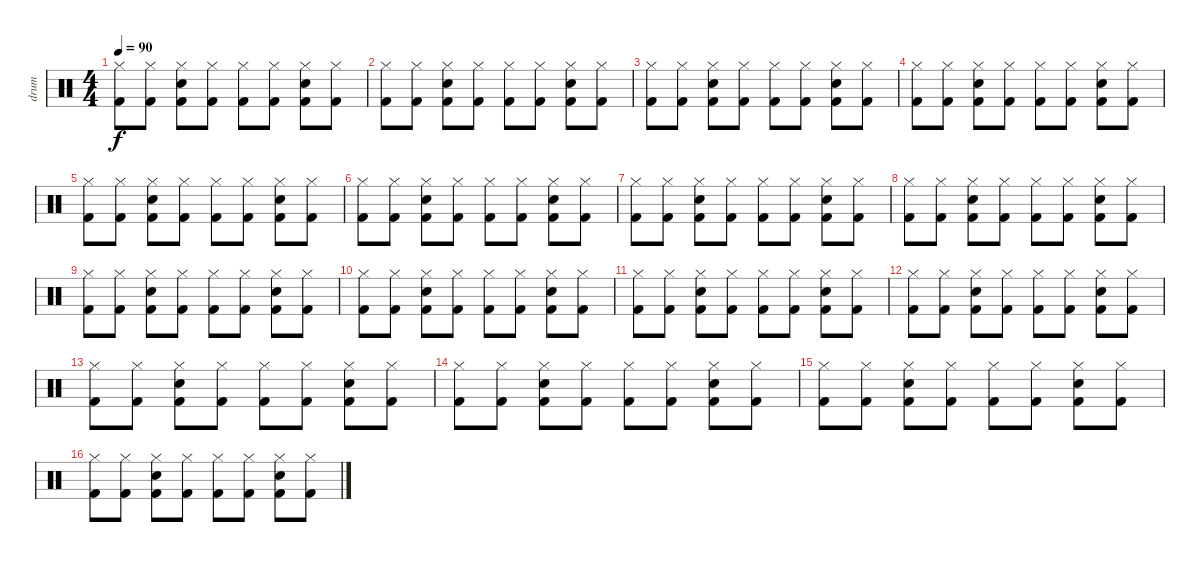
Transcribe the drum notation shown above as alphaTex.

\track ("drum" "drum") {instrument percussion}
\staff {score}
\articulation defaults
\ts (4 4)
\tempo 90
\clef neutral
\ks c
("Kick (hit) 2" "Hi-Hat (closed)").8{dy f} ("Kick (hit) 2" "Hi-Hat (closed)").8 ("Kick (hit) 2" "Snare (hit) 2" "Hi-Hat (closed)").8 ("Kick (hit) 2" "Hi-Hat (closed)").8 ("Kick (hit) 2" "Hi-Hat (closed)").8 ("Kick (hit) 2" "Hi-Hat (closed)").8 ("Kick (hit) 2" "Snare (hit) 2" "Hi-Hat (closed)").8 ("Kick (hit) 2" "Hi-Hat (closed)").8 |
("Kick (hit) 2" "Hi-Hat (closed)").8 ("Kick (hit) 2" "Hi-Hat (closed)").8 ("Kick (hit) 2" "Snare (hit) 2" "Hi-Hat (closed)").8 ("Kick (hit) 2" "Hi-Hat (closed)").8 ("Kick (hit) 2" "Hi-Hat (closed)").8 ("Kick (hit) 2" "Hi-Hat (closed)").8 ("Kick (hit) 2" "Snare (hit) 2" "Hi-Hat (closed)").8 ("Kick (hit) 2" "Hi-Hat (closed)").8 |
("Kick (hit) 2" "Hi-Hat (closed)").8 ("Kick (hit) 2" "Hi-Hat (closed)").8 ("Kick (hit) 2" "Snare (hit) 2" "Hi-Hat (closed)").8 ("Kick (hit) 2" "Hi-Hat (closed)").8 ("Kick (hit) 2" "Hi-Hat (closed)").8 ("Kick (hit) 2" "Hi-Hat (closed)").8 ("Kick (hit) 2" "Snare (hit) 2" "Hi-Hat (closed)").8 ("Kick (hit) 2" "Hi-Hat (closed)").8 |
("Kick (hit) 2" "Hi-Hat (closed)").8 ("Kick (hit) 2" "Hi-Hat (closed)").8 ("Kick (hit) 2" "Snare (hit) 2" "Hi-Hat (closed)").8 ("Kick (hit) 2" "Hi-Hat (closed)").8 ("Kick (hit) 2" "Hi-Hat (closed)").8 ("Kick (hit) 2" "Hi-Hat (closed)").8 ("Kick (hit) 2" "Snare (hit) 2" "Hi-Hat (closed)").8 ("Kick (hit) 2" "Hi-Hat (closed)").8 |
("Kick (hit) 2" "Hi-Hat (closed)").8 ("Kick (hit) 2" "Hi-Hat (closed)").8 ("Kick (hit) 2" "Snare (hit) 2" "Hi-Hat (closed)").8 ("Kick (hit) 2" "Hi-Hat (closed)").8 ("Kick (hit) 2" "Hi-Hat (closed)").8 ("Kick (hit) 2" "Hi-Hat (closed)").8 ("Kick (hit) 2" "Snare (hit) 2" "Hi-Hat (closed)").8 ("Kick (hit) 2" "Hi-Hat (closed)").8 |
("Kick (hit) 2" "Hi-Hat (closed)").8 ("Kick (hit) 2" "Hi-Hat (closed)").8 ("Kick (hit) 2" "Snare (hit) 2" "Hi-Hat (closed)").8 ("Kick (hit) 2" "Hi-Hat (closed)").8 ("Kick (hit) 2" "Hi-Hat (closed)").8 ("Kick (hit) 2" "Hi-Hat (closed)").8 ("Kick (hit) 2" "Snare (hit) 2" "Hi-Hat (closed)").8 ("Kick (hit) 2" "Hi-Hat (closed)").8 |
("Kick (hit) 2" "Hi-Hat (closed)").8 ("Kick (hit) 2" "Hi-Hat (closed)").8 ("Kick (hit) 2" "Snare (hit) 2" "Hi-Hat (closed)").8 ("Kick (hit) 2" "Hi-Hat (closed)").8 ("Kick (hit) 2" "Hi-Hat (closed)").8 ("Kick (hit) 2" "Hi-Hat (closed)").8 ("Kick (hit) 2" "Snare (hit) 2" "Hi-Hat (closed)").8 ("Kick (hit) 2" "Hi-Hat (closed)").8 |
("Kick (hit) 2" "Hi-Hat (closed)").8 ("Kick (hit) 2" "Hi-Hat (closed)").8 ("Kick (hit) 2" "Snare (hit) 2" "Hi-Hat (closed)").8 ("Kick (hit) 2" "Hi-Hat (closed)").8 ("Kick (hit) 2" "Hi-Hat (closed)").8 ("Kick (hit) 2" "Hi-Hat (closed)").8 ("Kick (hit) 2" "Snare (hit) 2" "Hi-Hat (closed)").8 ("Kick (hit) 2" "Hi-Hat (closed)").8 |
("Kick (hit) 2" "Hi-Hat (closed)").8 ("Kick (hit) 2" "Hi-Hat (closed)").8 ("Kick (hit) 2" "Snare (hit) 2" "Hi-Hat (closed)").8 ("Kick (hit) 2" "Hi-Hat (closed)").8 ("Kick (hit) 2" "Hi-Hat (closed)").8 ("Kick (hit) 2" "Hi-Hat (closed)").8 ("Kick (hit) 2" "Snare (hit) 2" "Hi-Hat (closed)").8 ("Kick (hit) 2" "Hi-Hat (closed)").8 |
("Kick (hit) 2" "Hi-Hat (closed)").8 ("Kick (hit) 2" "Hi-Hat (closed)").8 ("Kick (hit) 2" "Snare (hit) 2" "Hi-Hat (closed)").8 ("Kick (hit) 2" "Hi-Hat (closed)").8 ("Kick (hit) 2" "Hi-Hat (closed)").8 ("Kick (hit) 2" "Hi-Hat (closed)").8 ("Kick (hit) 2" "Snare (hit) 2" "Hi-Hat (closed)").8 ("Kick (hit) 2" "Hi-Hat (closed)").8 |
("Kick (hit) 2" "Hi-Hat (closed)").8 ("Kick (hit) 2" "Hi-Hat (closed)").8 ("Kick (hit) 2" "Snare (hit) 2" "Hi-Hat (closed)").8 ("Kick (hit) 2" "Hi-Hat (closed)").8 ("Kick (hit) 2" "Hi-Hat (closed)").8 ("Kick (hit) 2" "Hi-Hat (closed)").8 ("Kick (hit) 2" "Snare (hit) 2" "Hi-Hat (closed)").8 ("Kick (hit) 2" "Hi-Hat (closed)").8 |
("Kick (hit) 2" "Hi-Hat (closed)").8 ("Kick (hit) 2" "Hi-Hat (closed)").8 ("Kick (hit) 2" "Snare (hit) 2" "Hi-Hat (closed)").8 ("Kick (hit) 2" "Hi-Hat (closed)").8 ("Kick (hit) 2" "Hi-Hat (closed)").8 ("Kick (hit) 2" "Hi-Hat (closed)").8 ("Kick (hit) 2" "Snare (hit) 2" "Hi-Hat (closed)").8 ("Kick (hit) 2" "Hi-Hat (closed)").8 |
("Kick (hit) 2" "Hi-Hat (closed)").8 ("Kick (hit) 2" "Hi-Hat (closed)").8 ("Kick (hit) 2" "Snare (hit) 2" "Hi-Hat (closed)").8 ("Kick (hit) 2" "Hi-Hat (closed)").8 ("Kick (hit) 2" "Hi-Hat (closed)").8 ("Kick (hit) 2" "Hi-Hat (closed)").8 ("Kick (hit) 2" "Snare (hit) 2" "Hi-Hat (closed)").8 ("Kick (hit) 2" "Hi-Hat (closed)").8 |
("Kick (hit) 2" "Hi-Hat (closed)").8 ("Kick (hit) 2" "Hi-Hat (closed)").8 ("Kick (hit) 2" "Snare (hit) 2" "Hi-Hat (closed)").8 ("Kick (hit) 2" "Hi-Hat (closed)").8 ("Kick (hit) 2" "Hi-Hat (closed)").8 ("Kick (hit) 2" "Hi-Hat (closed)").8 ("Kick (hit) 2" "Snare (hit) 2" "Hi-Hat (closed)").8 ("Kick (hit) 2" "Hi-Hat (closed)").8 |
("Kick (hit) 2" "Hi-Hat (closed)").8 ("Kick (hit) 2" "Hi-Hat (closed)").8 ("Kick (hit) 2" "Snare (hit) 2" "Hi-Hat (closed)").8 ("Kick (hit) 2" "Hi-Hat (closed)").8 ("Kick (hit) 2" "Hi-Hat (closed)").8 ("Kick (hit) 2" "Hi-Hat (closed)").8 ("Kick (hit) 2" "Snare (hit) 2" "Hi-Hat (closed)").8 ("Kick (hit) 2" "Hi-Hat (closed)").8 |
("Kick (hit) 2" "Hi-Hat (closed)").8 ("Kick (hit) 2" "Hi-Hat (closed)").8 ("Kick (hit) 2" "Snare (hit) 2" "Hi-Hat (closed)").8 ("Kick (hit) 2" "Hi-Hat (closed)").8 ("Kick (hit) 2" "Hi-Hat (closed)").8 ("Kick (hit) 2" "Hi-Hat (closed)").8 ("Kick (hit) 2" "Snare (hit) 2" "Hi-Hat (closed)").8 ("Kick (hit) 2" "Hi-Hat (closed)").8
